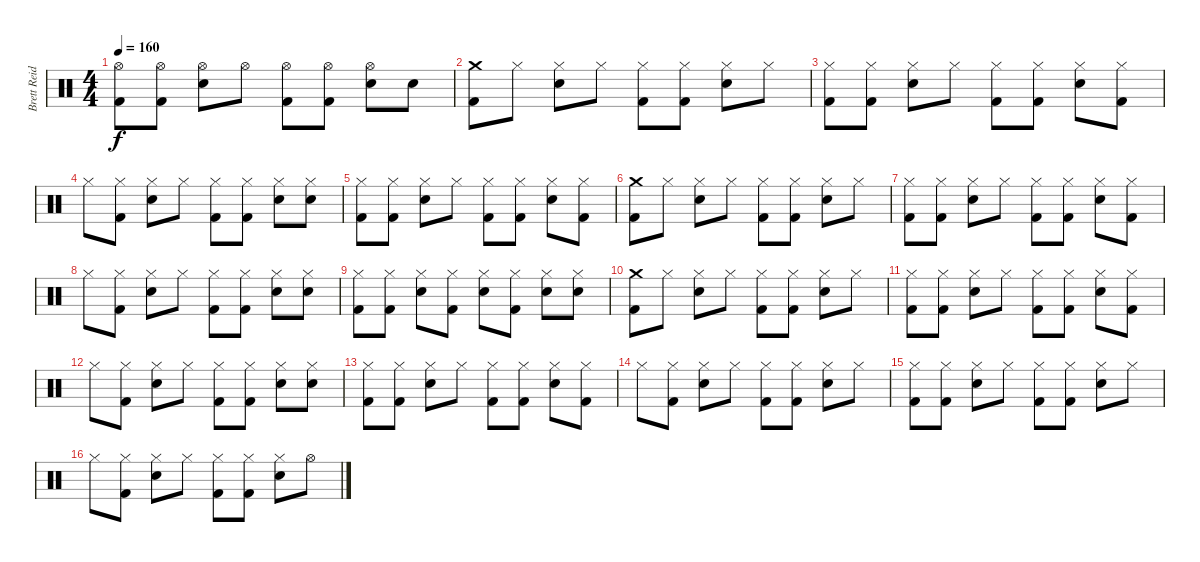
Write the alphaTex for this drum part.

\track ("Brett Reid" "Brett Reid") {instrument percussion}
\staff {score}
\articulation defaults
\ts (4 4)
\tempo 160
\clef neutral
\ks c
("Hi-Hat (open)" "Kick (hit) 2").8{dy f} ("Hi-Hat (open)" "Kick (hit) 2").8 ("Hi-Hat (open)" "Snare (hit) 2").8 "Hi-Hat (open)".8 ("Hi-Hat (open)" "Kick (hit) 2").8 ("Hi-Hat (open)" "Kick (hit) 2").8 ("Hi-Hat (open)" "Snare (hit) 2").8 "Snare (hit) 2".8 |
("Crash medium (hit)" "Kick (hit) 2").8 "Hi-Hat (closed)".8 ("Hi-Hat (closed)" "Snare (hit) 2").8 "Hi-Hat (closed)".8 ("Hi-Hat (closed)" "Kick (hit) 2").8 ("Hi-Hat (closed)" "Kick (hit) 2").8 ("Hi-Hat (closed)" "Snare (hit) 2").8 "Hi-Hat (closed)".8 |
("Hi-Hat (closed)" "Kick (hit) 2").8 ("Hi-Hat (closed)" "Kick (hit) 2").8 ("Hi-Hat (closed)" "Snare (hit) 2").8 "Hi-Hat (closed)".8 ("Hi-Hat (closed)" "Kick (hit) 2").8 ("Hi-Hat (closed)" "Kick (hit) 2").8 ("Hi-Hat (closed)" "Snare (hit) 2").8 ("Hi-Hat (closed)" "Kick (hit) 2").8 |
"Hi-Hat (closed)".8 ("Hi-Hat (closed)" "Kick (hit) 2").8 ("Hi-Hat (closed)" "Snare (hit) 2").8 "Hi-Hat (closed)".8 ("Hi-Hat (closed)" "Kick (hit) 2").8 ("Hi-Hat (closed)" "Kick (hit) 2").8 ("Hi-Hat (closed)" "Snare (hit) 2").8 ("Hi-Hat (closed)" "Snare (hit) 2").8 |
("Hi-Hat (closed)" "Kick (hit) 2").8 ("Hi-Hat (closed)" "Kick (hit) 2").8 ("Hi-Hat (closed)" "Snare (hit) 2").8 "Hi-Hat (closed)".8 ("Hi-Hat (closed)" "Kick (hit) 2").8 ("Hi-Hat (closed)" "Kick (hit) 2").8 ("Hi-Hat (closed)" "Snare (hit) 2").8 ("Hi-Hat (closed)" "Kick (hit) 2").8 |
("Crash medium (hit)" "Kick (hit) 2").8 "Hi-Hat (closed)".8 ("Hi-Hat (closed)" "Snare (hit) 2").8 "Hi-Hat (closed)".8 ("Hi-Hat (closed)" "Kick (hit) 2").8 ("Hi-Hat (closed)" "Kick (hit) 2").8 ("Hi-Hat (closed)" "Snare (hit) 2").8 "Hi-Hat (closed)".8 |
("Hi-Hat (closed)" "Kick (hit) 2").8 ("Hi-Hat (closed)" "Kick (hit) 2").8 ("Hi-Hat (closed)" "Snare (hit) 2").8 "Hi-Hat (closed)".8 ("Hi-Hat (closed)" "Kick (hit) 2").8 ("Hi-Hat (closed)" "Kick (hit) 2").8 ("Hi-Hat (closed)" "Snare (hit) 2").8 ("Hi-Hat (closed)" "Kick (hit) 2").8 |
"Hi-Hat (closed)".8 ("Hi-Hat (closed)" "Kick (hit) 2").8 ("Hi-Hat (closed)" "Snare (hit) 2").8 "Hi-Hat (closed)".8 ("Hi-Hat (closed)" "Kick (hit) 2").8 ("Hi-Hat (closed)" "Kick (hit) 2").8 ("Hi-Hat (closed)" "Snare (hit) 2").8 ("Hi-Hat (closed)" "Snare (hit) 2").8 |
("Hi-Hat (closed)" "Kick (hit) 2").8 ("Hi-Hat (closed)" "Kick (hit) 2").8 ("Hi-Hat (closed)" "Snare (hit) 2").8 ("Hi-Hat (closed)" "Kick (hit) 2").8 ("Hi-Hat (closed)" "Snare (hit) 2").8 ("Hi-Hat (closed)" "Kick (hit) 2").8 ("Hi-Hat (closed)" "Snare (hit) 2").8 ("Hi-Hat (closed)" "Snare (hit) 2").8 |
("Crash medium (hit)" "Kick (hit) 2").8 "Hi-Hat (closed)".8 ("Hi-Hat (closed)" "Snare (hit) 2").8 "Hi-Hat (closed)".8 ("Hi-Hat (closed)" "Kick (hit) 2").8 ("Hi-Hat (closed)" "Kick (hit) 2").8 ("Hi-Hat (closed)" "Snare (hit) 2").8 "Hi-Hat (closed)".8 |
("Hi-Hat (closed)" "Kick (hit) 2").8 ("Hi-Hat (closed)" "Kick (hit) 2").8 ("Hi-Hat (closed)" "Snare (hit) 2").8 "Hi-Hat (closed)".8 ("Hi-Hat (closed)" "Kick (hit) 2").8 ("Hi-Hat (closed)" "Kick (hit) 2").8 ("Hi-Hat (closed)" "Snare (hit) 2").8 ("Hi-Hat (closed)" "Kick (hit) 2").8 |
"Hi-Hat (closed)".8 ("Hi-Hat (closed)" "Kick (hit) 2").8 ("Hi-Hat (closed)" "Snare (hit) 2").8 "Hi-Hat (closed)".8 ("Hi-Hat (closed)" "Kick (hit) 2").8 ("Hi-Hat (closed)" "Kick (hit) 2").8 ("Hi-Hat (closed)" "Snare (hit) 2").8 ("Hi-Hat (closed)" "Snare (hit) 2").8 |
("Hi-Hat (closed)" "Kick (hit) 2").8 ("Hi-Hat (closed)" "Kick (hit) 2").8 ("Hi-Hat (closed)" "Snare (hit) 2").8 "Hi-Hat (closed)".8 ("Hi-Hat (closed)" "Kick (hit) 2").8 ("Hi-Hat (closed)" "Kick (hit) 2").8 ("Hi-Hat (closed)" "Snare (hit) 2").8 ("Hi-Hat (closed)" "Kick (hit) 2").8 |
"Hi-Hat (closed)".8 ("Hi-Hat (closed)" "Kick (hit) 2").8 ("Hi-Hat (closed)" "Snare (hit) 2").8 "Hi-Hat (closed)".8 ("Hi-Hat (closed)" "Kick (hit) 2").8 ("Hi-Hat (closed)" "Kick (hit) 2").8 ("Hi-Hat (closed)" "Snare (hit) 2").8 "Hi-Hat (closed)".8 |
("Hi-Hat (closed)" "Kick (hit) 2").8 ("Hi-Hat (closed)" "Kick (hit) 2").8 ("Hi-Hat (closed)" "Snare (hit) 2").8 "Hi-Hat (closed)".8 ("Hi-Hat (closed)" "Kick (hit) 2").8 ("Hi-Hat (closed)" "Kick (hit) 2").8 ("Hi-Hat (closed)" "Snare (hit) 2").8 "Hi-Hat (closed)".8 |
"Hi-Hat (closed)".8 ("Hi-Hat (closed)" "Kick (hit) 2").8 ("Hi-Hat (closed)" "Snare (hit) 2").8 "Hi-Hat (closed)".8 ("Hi-Hat (closed)" "Kick (hit) 2").8 ("Hi-Hat (closed)" "Kick (hit) 2").8 ("Hi-Hat (closed)" "Snare (hit) 2").8 "Hi-Hat (open)".8
